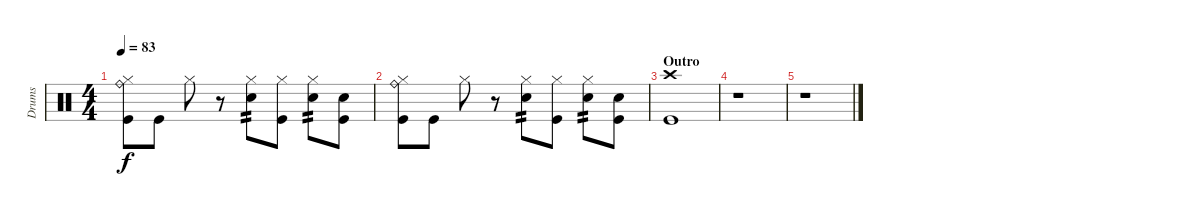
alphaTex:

\track ("Drums" "Drums") {instrument percussion}
\staff {score}
\articulation defaults
\ts (4 4)
\tempo 83
\clef neutral
\ks c
("Ride (bell)" "Hi-Hat (closed)" "Kick (hit)").8{dy f} "Kick (hit)".8 "Hi-Hat (closed)".8 r.8 ("Hand Clap (hit)" "Hi-Hat (closed)").8{tp 2} ("Hi-Hat (closed)" "Kick (hit)").8 ("Hand Clap (hit)" "Hi-Hat (closed)").8{tp 2} ("Snare (hit)" "Kick (hit)").8 |
("Ride (bell)" "Hi-Hat (closed)" "Kick (hit)").8 "Kick (hit)".8 "Hi-Hat (closed)".8 r.8 ("Hand Clap (hit)" "Hi-Hat (closed)").8{tp 2} ("Hi-Hat (closed)" "Kick (hit)").8 ("Hand Clap (hit)" "Hi-Hat (closed)").8{tp 2} ("Snare (hit)" "Kick (hit)").8 |
\section ("" "Outro")
("Crash high (hit)" "Kick (hit)").1 |
r.1 |
r.1
